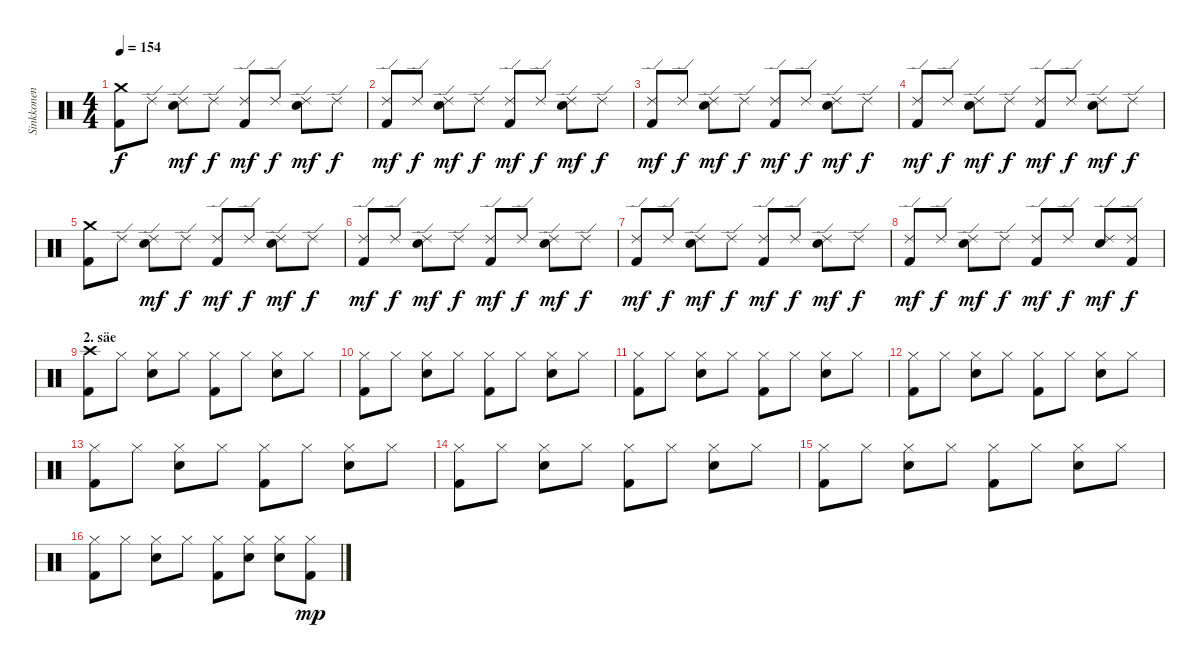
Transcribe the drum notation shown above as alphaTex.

\track ("Sinkkonen" "Sinkkonen") {instrument percussion}
\staff {score}
\articulation defaults
\ts (4 4)
\tempo 154
\clef neutral
\ks c
("Kick (hit) 2" "Crash medium (hit)").8{dy f} "Ride (edge) 2".8 ("Ride (edge) 2" "Snare (hit) 2").8{dy mf} "Ride (edge) 2".8{dy f} ("Kick (hit) 2" "Ride (edge) 2").8{dy mf} "Ride (edge) 2".8{dy f} ("Ride (edge) 2" "Snare (hit) 2").8{dy mf} "Ride (edge) 2".8{dy f} |
("Kick (hit) 2" "Ride (edge) 2").8{dy mf} "Ride (edge) 2".8{dy f} ("Ride (edge) 2" "Snare (hit) 2").8{dy mf} "Ride (edge) 2".8{dy f} ("Kick (hit) 2" "Ride (edge) 2").8{dy mf} "Ride (edge) 2".8{dy f} ("Ride (edge) 2" "Snare (hit) 2").8{dy mf} "Ride (edge) 2".8{dy f} |
("Kick (hit) 2" "Ride (edge) 2").8{dy mf} "Ride (edge) 2".8{dy f} ("Ride (edge) 2" "Snare (hit) 2").8{dy mf} "Ride (edge) 2".8{dy f} ("Kick (hit) 2" "Ride (edge) 2").8{dy mf} "Ride (edge) 2".8{dy f} ("Ride (edge) 2" "Snare (hit) 2").8{dy mf} "Ride (edge) 2".8{dy f} |
("Kick (hit) 2" "Ride (edge) 2").8{dy mf} "Ride (edge) 2".8{dy f} ("Ride (edge) 2" "Snare (hit) 2").8{dy mf} "Ride (edge) 2".8{dy f} ("Kick (hit) 2" "Ride (edge) 2").8{dy mf} "Ride (edge) 2".8{dy f} ("Ride (edge) 2" "Snare (hit) 2").8{dy mf} "Ride (edge) 2".8{dy f} |
("Kick (hit) 2" "Crash medium (hit)").8 "Ride (edge) 2".8 ("Ride (edge) 2" "Snare (hit) 2").8{dy mf} "Ride (edge) 2".8{dy f} ("Kick (hit) 2" "Ride (edge) 2").8{dy mf} "Ride (edge) 2".8{dy f} ("Ride (edge) 2" "Snare (hit) 2").8{dy mf} "Ride (edge) 2".8{dy f} |
("Kick (hit) 2" "Ride (edge) 2").8{dy mf} "Ride (edge) 2".8{dy f} ("Ride (edge) 2" "Snare (hit) 2").8{dy mf} "Ride (edge) 2".8{dy f} ("Kick (hit) 2" "Ride (edge) 2").8{dy mf} "Ride (edge) 2".8{dy f} ("Ride (edge) 2" "Snare (hit) 2").8{dy mf} "Ride (edge) 2".8{dy f} |
("Kick (hit) 2" "Ride (edge) 2").8{dy mf} "Ride (edge) 2".8{dy f} ("Ride (edge) 2" "Snare (hit) 2").8{dy mf} "Ride (edge) 2".8{dy f} ("Kick (hit) 2" "Ride (edge) 2").8{dy mf} "Ride (edge) 2".8{dy f} ("Ride (edge) 2" "Snare (hit) 2").8{dy mf} "Ride (edge) 2".8{dy f} |
("Kick (hit) 2" "Ride (edge) 2").8{dy mf} "Ride (edge) 2".8{dy f} ("Ride (edge) 2" "Snare (hit) 2").8{dy mf} "Ride (edge) 2".8{dy f} ("Kick (hit) 2" "Ride (edge) 2").8{dy mf} "Ride (edge) 2".8{dy f} ("Ride (edge) 2" "Snare (hit) 2").8{dy mf} ("Kick (hit) 2" "Ride (edge) 2").8{dy f} |
\section ("" "2. säe")
("Kick (hit) 2" "Crash high (hit)").8 "Hi-Hat (closed)".8 ("Hi-Hat (closed)" "Snare (hit) 2").8 "Hi-Hat (closed)".8 ("Kick (hit) 2" "Hi-Hat (closed)").8 "Hi-Hat (closed)".8 ("Hi-Hat (closed)" "Snare (hit) 2").8 "Hi-Hat (closed)".8 |
("Kick (hit) 2" "Hi-Hat (closed)").8 "Hi-Hat (closed)".8 ("Hi-Hat (closed)" "Snare (hit) 2").8 "Hi-Hat (closed)".8 ("Kick (hit) 2" "Hi-Hat (closed)").8 "Hi-Hat (closed)".8 ("Hi-Hat (closed)" "Snare (hit) 2").8 "Hi-Hat (closed)".8 |
("Kick (hit) 2" "Hi-Hat (closed)").8 "Hi-Hat (closed)".8 ("Hi-Hat (closed)" "Snare (hit) 2").8 "Hi-Hat (closed)".8 ("Kick (hit) 2" "Hi-Hat (closed)").8 "Hi-Hat (closed)".8 ("Hi-Hat (closed)" "Snare (hit) 2").8 "Hi-Hat (closed)".8 |
("Kick (hit) 2" "Hi-Hat (closed)").8 "Hi-Hat (closed)".8 ("Hi-Hat (closed)" "Snare (hit) 2").8 "Hi-Hat (closed)".8 ("Kick (hit) 2" "Hi-Hat (closed)").8 "Hi-Hat (closed)".8 ("Hi-Hat (closed)" "Snare (hit) 2").8 "Hi-Hat (closed)".8 |
("Kick (hit) 2" "Hi-Hat (closed)").8 "Hi-Hat (closed)".8 ("Hi-Hat (closed)" "Snare (hit) 2").8 "Hi-Hat (closed)".8 ("Kick (hit) 2" "Hi-Hat (closed)").8 "Hi-Hat (closed)".8 ("Hi-Hat (closed)" "Snare (hit) 2").8 "Hi-Hat (closed)".8 |
("Kick (hit) 2" "Hi-Hat (closed)").8 "Hi-Hat (closed)".8 ("Hi-Hat (closed)" "Snare (hit) 2").8 "Hi-Hat (closed)".8 ("Kick (hit) 2" "Hi-Hat (closed)").8 "Hi-Hat (closed)".8 ("Hi-Hat (closed)" "Snare (hit) 2").8 "Hi-Hat (closed)".8 |
("Kick (hit) 2" "Hi-Hat (closed)").8 "Hi-Hat (closed)".8 ("Hi-Hat (closed)" "Snare (hit) 2").8 "Hi-Hat (closed)".8 ("Kick (hit) 2" "Hi-Hat (closed)").8 "Hi-Hat (closed)".8 ("Hi-Hat (closed)" "Snare (hit) 2").8 "Hi-Hat (closed)".8 |
("Kick (hit) 2" "Hi-Hat (closed)").8 "Hi-Hat (closed)".8 ("Hi-Hat (closed)" "Snare (hit) 2").8 "Hi-Hat (closed)".8 ("Kick (hit) 2" "Hi-Hat (closed)").8 ("Hi-Hat (closed)" "Snare (hit) 2").8 ("Hi-Hat (closed)" "Snare (hit) 2").8 ("Kick (hit) 2" "Hi-Hat (closed)").8{dy mp}
